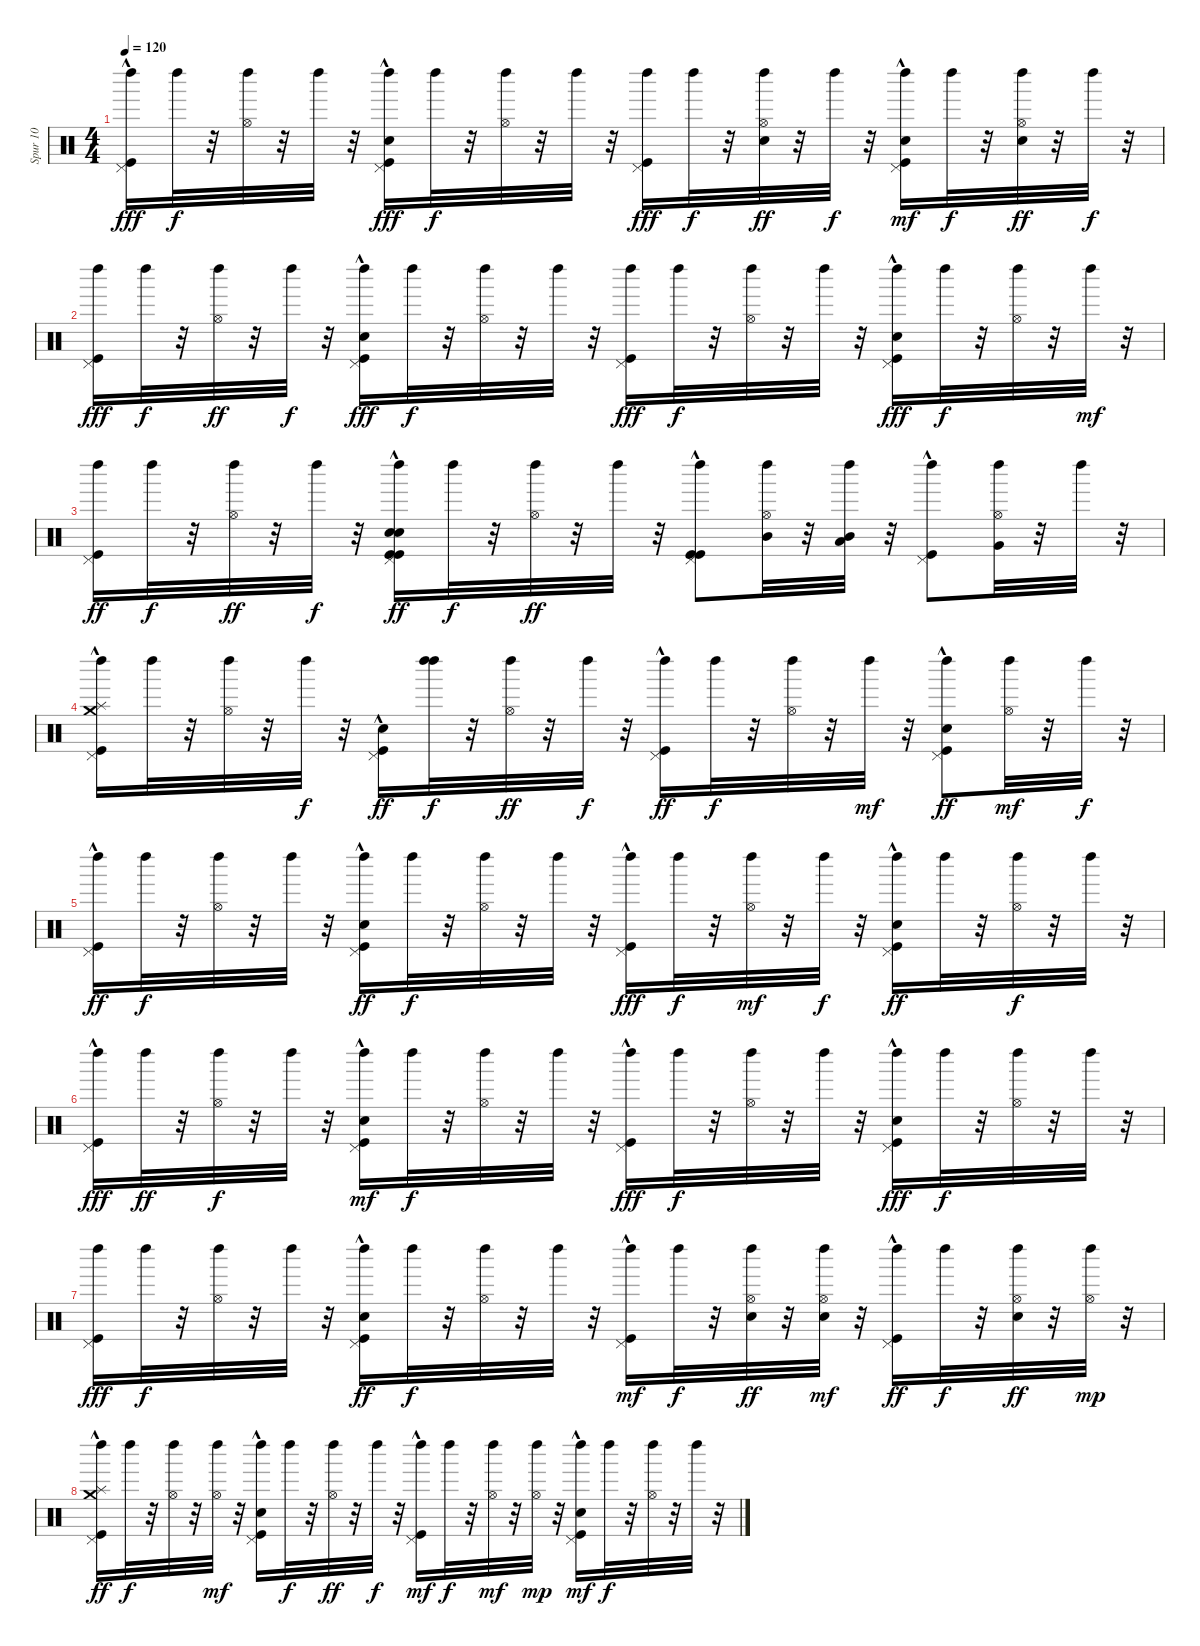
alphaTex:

\track ("Spur 10" "Spur 10") {instrument percussion}
\staff {score}
\articulation defaults
\ts (4 4)
\tempo 120
\clef neutral
\ks c
("Kick (hit)" "Pedal Hi-Hat (hit)"{hac} "Left Maraca (hit)").16{dy fff} "Left Maraca (hit)".32{dy f} r.32 ("Hi-Hat (open)" "Left Maraca (hit)").32 r.32 "Left Maraca (hit)".32 r.32 ("Snare (hit) 2"{hac} "Kick (hit)" "Pedal Hi-Hat (hit)" "Left Maraca (hit)").16{dy fff} "Left Maraca (hit)".32{dy f} r.32 ("Hi-Hat (open)" "Left Maraca (hit)").32 r.32 "Left Maraca (hit)".32 r.32 ("Kick (hit)" "Pedal Hi-Hat (hit)" "Left Maraca (hit)").16{dy fff} "Left Maraca (hit)".32{dy f} r.32 ("Snare (hit) 2" "Hi-Hat (open)" "Left Maraca (hit)").32{dy ff} r.32 "Left Maraca (hit)".32{dy f} r.32 ("Kick (hit)"{hac} "Snare (hit) 2" "Pedal Hi-Hat (hit)"{hac} "Left Maraca (hit)").16{dy mf} "Left Maraca (hit)".32{dy f} r.32 ("Snare (hit) 2" "Hi-Hat (open)" "Left Maraca (hit)").32{dy ff} r.32 "Left Maraca (hit)".32{dy f} r.32 |
("Pedal Hi-Hat (hit)" "Kick (hit)" "Left Maraca (hit)").16{dy fff} "Left Maraca (hit)".32{dy f} r.32 ("Hi-Hat (open)" "Left Maraca (hit)").32{dy ff} r.32 "Left Maraca (hit)".32{dy f} r.32 ("Pedal Hi-Hat (hit)"{hac} "Kick (hit)" "Snare (hit) 2" "Left Maraca (hit)").16{dy fff} "Left Maraca (hit)".32{dy f} r.32 ("Hi-Hat (open)" "Left Maraca (hit)").32 r.32 "Left Maraca (hit)".32 r.32 ("Pedal Hi-Hat (hit)" "Kick (hit)" "Left Maraca (hit)").16{dy fff} "Left Maraca (hit)".32{dy f} r.32 ("Hi-Hat (open)" "Left Maraca (hit)").32 r.32 "Left Maraca (hit)".32 r.32 ("Pedal Hi-Hat (hit)"{hac} "Snare (hit) 2" "Kick (hit)" "Left Maraca (hit)").16{dy fff} "Left Maraca (hit)".32{dy f} r.32 ("Hi-Hat (open)" "Left Maraca (hit)").32 r.32 "Left Maraca (hit)".32{dy mf} r.32 |
("Kick (hit)" "Pedal Hi-Hat (hit)" "Left Maraca (hit)").16{dy ff} "Left Maraca (hit)".32{dy f} r.32 ("Hi-Hat (open)" "Left Maraca (hit)").32{dy ff} r.32 "Left Maraca (hit)".32{dy f} r.32 ("Snare (hit) 2"{hac} "Kick (hit)"{hac} "Snare (hit) 2"{hac} "Kick (hit)"{hac} "Pedal Hi-Hat (hit)"{hac} "Left Maraca (hit)").16{dy ff} "Left Maraca (hit)".32{dy f} r.32 ("Hi-Hat (open)" "Left Maraca (hit)").32{dy ff} r.32 "Left Maraca (hit)".32 r.32 ("Kick (hit)" "Kick (hit)" "Pedal Hi-Hat (hit)"{hac} "Left Maraca (hit)").8 ("Mid Tom (hit)" "Hi-Hat (open)" "Left Maraca (hit)").32 r.32 ("Low Tom (hit)" "Mid Tom (hit)" "Left Maraca (hit)").32 r.32 ("Kick (hit)" "Pedal Hi-Hat (hit)"{hac} "Left Maraca (hit)").8 ("Very Low Tom (hit)" "Hi-Hat (open)" "Left Maraca (hit)").32 r.32 "Left Maraca (hit)".32 r.32 |
("Kick (hit)"{hac} "Pedal Hi-Hat (hit)"{hac} "Left Maraca (hit)" "Crash medium (hit)" "Splash (hit)").16 "Left Maraca (hit)".32 r.32 ("Hi-Hat (open)" "Left Maraca (hit)").32 r.32 "Left Maraca (hit)".32{dy f} r.32 ("Kick (hit)" "Snare (hit) 2"{hac} "Pedal Hi-Hat (hit)"{hac}).16{dy ff} ("Left Maraca (hit)" "Left Maraca (hit)").32{dy f} r.32 ("Hi-Hat (open)" "Left Maraca (hit)").32{dy ff} r.32 "Left Maraca (hit)".32{dy f} r.32 ("Kick (hit)" "Pedal Hi-Hat (hit)"{hac} "Left Maraca (hit)").16{dy ff} "Left Maraca (hit)".32{dy f} r.32 ("Hi-Hat (open)" "Left Maraca (hit)").32 r.32 "Left Maraca (hit)".32{dy mf} r.32 ("Snare (hit) 2" "Kick (hit)" "Pedal Hi-Hat (hit)"{hac} "Left Maraca (hit)").8{dy ff} ("Hi-Hat (open)" "Left Maraca (hit)").32{dy mf} r.32 "Left Maraca (hit)".32{dy f} r.32 |
("Kick (hit)" "Pedal Hi-Hat (hit)"{hac} "Left Maraca (hit)").16{dy ff} "Left Maraca (hit)".32{dy f} r.32 ("Hi-Hat (open)" "Left Maraca (hit)").32 r.32 "Left Maraca (hit)".32 r.32 ("Kick (hit)" "Snare (hit) 2" "Pedal Hi-Hat (hit)"{hac} "Left Maraca (hit)").16{dy ff} "Left Maraca (hit)".32{dy f} r.32 ("Hi-Hat (open)" "Left Maraca (hit)").32 r.32 "Left Maraca (hit)".32 r.32 ("Kick (hit)" "Pedal Hi-Hat (hit)"{hac} "Left Maraca (hit)").16{dy fff} "Left Maraca (hit)".32{dy f} r.32 ("Hi-Hat (open)" "Left Maraca (hit)").32{dy mf} r.32 "Left Maraca (hit)".32{dy f} r.32 ("Snare (hit) 2"{hac} "Kick (hit)"{hac} "Pedal Hi-Hat (hit)"{hac} "Left Maraca (hit)").16{dy ff} "Left Maraca (hit)".32 r.32 ("Hi-Hat (open)" "Left Maraca (hit)").32{dy f} r.32 "Left Maraca (hit)".32 r.32 |
("Kick (hit)" "Pedal Hi-Hat (hit)"{hac} "Left Maraca (hit)").16{dy fff} "Left Maraca (hit)".32{dy ff} r.32 ("Hi-Hat (open)" "Left Maraca (hit)").32{dy f} r.32 "Left Maraca (hit)".32 r.32 ("Snare (hit) 2"{hac} "Kick (hit)"{hac} "Pedal Hi-Hat (hit)"{hac} "Left Maraca (hit)").16{dy mf} "Left Maraca (hit)".32{dy f} r.32 ("Hi-Hat (open)" "Left Maraca (hit)").32 r.32 "Left Maraca (hit)".32 r.32 ("Kick (hit)" "Pedal Hi-Hat (hit)"{hac} "Left Maraca (hit)").16{dy fff} "Left Maraca (hit)".32{dy f} r.32 ("Hi-Hat (open)" "Left Maraca (hit)").32 r.32 "Left Maraca (hit)".32 r.32 ("Snare (hit) 2"{hac} "Kick (hit)"{hac} "Pedal Hi-Hat (hit)"{hac} "Left Maraca (hit)").16{dy fff} "Left Maraca (hit)".32{dy f} r.32 ("Hi-Hat (open)" "Left Maraca (hit)").32 r.32 "Left Maraca (hit)".32 r.32 |
("Kick (hit)" "Pedal Hi-Hat (hit)" "Left Maraca (hit)").16{dy fff} "Left Maraca (hit)".32{dy f} r.32 ("Hi-Hat (open)" "Left Maraca (hit)").32 r.32 "Left Maraca (hit)".32 r.32 ("Snare (hit) 2"{hac} "Kick (hit)" "Pedal Hi-Hat (hit)" "Left Maraca (hit)").16{dy ff} "Left Maraca (hit)".32{dy f} r.32 ("Hi-Hat (open)" "Left Maraca (hit)").32 r.32 "Left Maraca (hit)".32 r.32 ("Kick (hit)"{hac} "Pedal Hi-Hat (hit)" "Left Maraca (hit)").16{dy mf} "Left Maraca (hit)".32{dy f} r.32 ("Snare (hit) 2" "Hi-Hat (open)" "Left Maraca (hit)").32{dy ff} r.32 ("Snare (hit) 2" "Hi-Hat (open)" "Left Maraca (hit)").32{dy mf} r.32 ("Kick (hit)"{hac} "Pedal Hi-Hat (hit)" "Left Maraca (hit)").16{dy ff} "Left Maraca (hit)".32{dy f} r.32 ("Snare (hit) 2" "Hi-Hat (open)" "Left Maraca (hit)").32{dy ff} r.32 ("Hi-Hat (open)" "Left Maraca (hit)").32{dy mp} r.32 |
("Kick (hit)" "Pedal Hi-Hat (hit)"{hac} "Left Maraca (hit)" "Splash (hit)" "Crash medium (hit)").16{dy ff} "Left Maraca (hit)".32{dy f} r.32 ("Hi-Hat (open)" "Left Maraca (hit)").32 r.32 ("Hi-Hat (open)" "Left Maraca (hit)").32{dy mf} r.32 ("Kick (hit)" "Snare (hit) 2"{hac} "Pedal Hi-Hat (hit)"{hac} "Left Maraca (hit)").16 "Left Maraca (hit)".32{dy f} r.32 ("Hi-Hat (open)" "Left Maraca (hit)").32{dy ff} r.32 "Left Maraca (hit)".32{dy f} r.32 ("Kick (hit)" "Pedal Hi-Hat (hit)"{hac} "Left Maraca (hit)").16{dy mf} "Left Maraca (hit)".32{dy f} r.32 ("Hi-Hat (open)" "Left Maraca (hit)").32{dy mf} r.32 ("Hi-Hat (open)" "Left Maraca (hit)").32{dy mp} r.32 ("Snare (hit) 2"{hac} "Kick (hit)"{hac} "Pedal Hi-Hat (hit)"{hac} "Left Maraca (hit)").16{dy mf} "Left Maraca (hit)".32{dy f} r.32 ("Hi-Hat (open)" "Left Maraca (hit)").32 r.32 "Left Maraca (hit)".32 r.32
